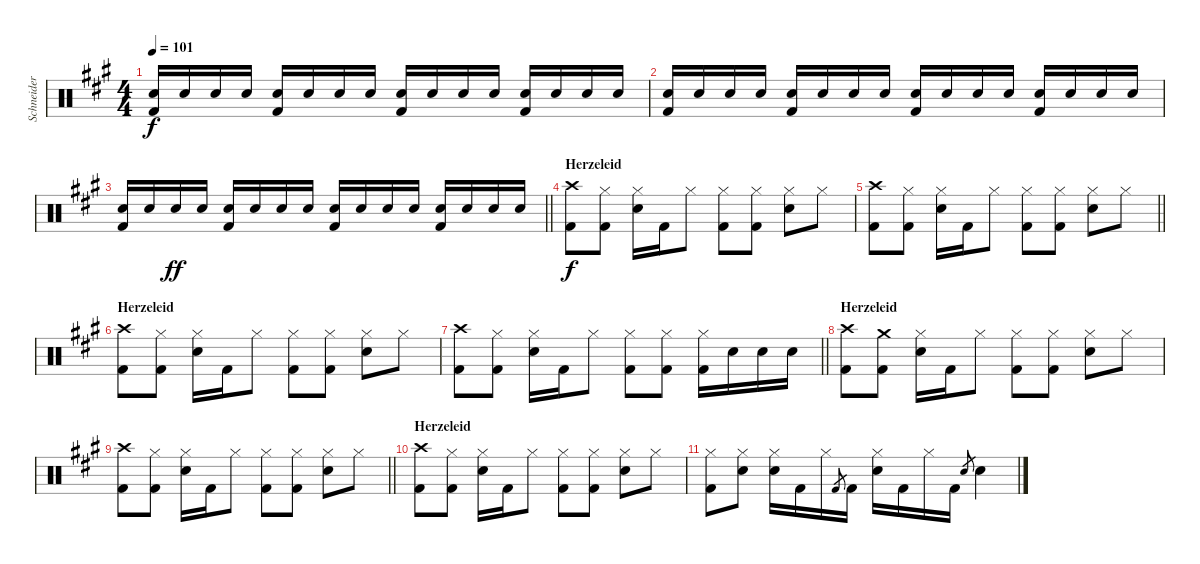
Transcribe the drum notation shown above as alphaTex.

\track ("Schneider" "Schneider") {instrument percussion}
\staff {score}
\articulation defaults
\ts (4 4)
\tempo 101
\clef neutral
\ks f#minor
("Snare (hit) 2" "Kick (hit) 2").16{dy f} "Snare (hit) 2".16 "Snare (hit) 2".16 "Snare (hit) 2".16 ("Snare (hit) 2" "Kick (hit) 2").16 "Snare (hit) 2".16 "Snare (hit) 2".16 "Snare (hit) 2".16 ("Snare (hit) 2" "Kick (hit) 2").16 "Snare (hit) 2".16 "Snare (hit) 2".16 "Snare (hit) 2".16 ("Snare (hit) 2" "Kick (hit) 2").16 "Snare (hit) 2".16 "Snare (hit) 2".16 "Snare (hit) 2".16 |
("Snare (hit) 2" "Kick (hit) 2").16 "Snare (hit) 2".16 "Snare (hit) 2".16 "Snare (hit) 2".16 ("Snare (hit) 2" "Kick (hit) 2").16 "Snare (hit) 2".16 "Snare (hit) 2".16 "Snare (hit) 2".16 ("Snare (hit) 2" "Kick (hit) 2").16 "Snare (hit) 2".16 "Snare (hit) 2".16 "Snare (hit) 2".16 ("Snare (hit) 2" "Kick (hit) 2").16 "Snare (hit) 2".16 "Snare (hit) 2".16 "Snare (hit) 2".16 |
\barLineRight lightlight
("Snare (hit) 2" "Kick (hit) 2").16 "Snare (hit) 2".16 "Snare (hit) 2".16{dy ff} "Snare (hit) 2".16 ("Snare (hit) 2" "Kick (hit) 2").16 "Snare (hit) 2".16 "Snare (hit) 2".16 "Snare (hit) 2".16 ("Snare (hit) 2" "Kick (hit) 2").16 "Snare (hit) 2".16 "Snare (hit) 2".16 "Snare (hit) 2".16 ("Snare (hit) 2" "Kick (hit) 2").16 "Snare (hit) 2".16 "Snare (hit) 2".16 "Snare (hit) 2".16 |
\section ("" "Herzeleid")
("Crash high (hit)" "Kick (hit) 2").8{dy f} ("Hi-Hat (closed)" "Kick (hit) 2").8 ("Hi-Hat (closed)" "Snare (hit) 2").16 "Kick (hit) 2".16 "Hi-Hat (closed)".8 ("Hi-Hat (closed)" "Kick (hit) 2").8 ("Hi-Hat (closed)" "Kick (hit) 2").8 ("Hi-Hat (closed)" "Snare (hit) 2").8 "Hi-Hat (closed)".8 |
\barLineRight lightlight
("Crash high (hit)" "Kick (hit) 2").8 ("Hi-Hat (closed)" "Kick (hit) 2").8 ("Hi-Hat (closed)" "Snare (hit) 2").16 "Kick (hit) 2".16 "Hi-Hat (closed)".8 ("Hi-Hat (closed)" "Kick (hit) 2").8 ("Hi-Hat (closed)" "Kick (hit) 2").8 ("Hi-Hat (closed)" "Snare (hit) 2").8 "Hi-Hat (closed)".8 |
\section ("" "Herzeleid")
("Crash high (hit)" "Kick (hit) 2").8 ("Hi-Hat (closed)" "Kick (hit) 2").8 ("Hi-Hat (closed)" "Snare (hit) 2").16 "Kick (hit) 2".16 "Hi-Hat (closed)".8 ("Hi-Hat (closed)" "Kick (hit) 2").8 ("Hi-Hat (closed)" "Kick (hit) 2").8 ("Hi-Hat (closed)" "Snare (hit) 2").8 "Hi-Hat (closed)".8 |
\barLineRight lightlight
("Crash high (hit)" "Kick (hit) 2").8 ("Hi-Hat (closed)" "Kick (hit) 2").8 ("Hi-Hat (closed)" "Snare (hit) 2").16 "Kick (hit) 2".16 "Hi-Hat (closed)".8 ("Hi-Hat (closed)" "Kick (hit) 2").8 ("Hi-Hat (closed)" "Kick (hit) 2").8 ("Hi-Hat (closed)" "Kick (hit) 2").16 "Snare (hit) 2".16 "Snare (hit) 2".16 "Snare (hit) 2".16 |
\section ("" "Herzeleid")
("Crash high (hit)" "Kick (hit) 2").8 ("Crash medium (hit)" "Kick (hit) 2").8 ("Hi-Hat (closed)" "Snare (hit) 2").16 "Kick (hit) 2".16 "Hi-Hat (closed)".8 ("Hi-Hat (closed)" "Kick (hit) 2").8 ("Hi-Hat (closed)" "Kick (hit) 2").8 ("Hi-Hat (closed)" "Snare (hit) 2").8 "Hi-Hat (closed)".8 |
\barLineRight lightlight
("Crash high (hit)" "Kick (hit) 2").8 ("Hi-Hat (closed)" "Kick (hit) 2").8 ("Hi-Hat (closed)" "Snare (hit) 2").16 "Kick (hit) 2".16 "Hi-Hat (closed)".8 ("Hi-Hat (closed)" "Kick (hit) 2").8 ("Hi-Hat (closed)" "Kick (hit) 2").8 ("Hi-Hat (closed)" "Snare (hit) 2").8 "Hi-Hat (closed)".8 |
\section ("" "Herzeleid")
("Crash high (hit)" "Kick (hit) 2").8 ("Hi-Hat (closed)" "Kick (hit) 2").8 ("Hi-Hat (closed)" "Snare (hit) 2").16 "Kick (hit) 2".16 "Hi-Hat (closed)".8 ("Hi-Hat (closed)" "Kick (hit) 2").8 ("Hi-Hat (closed)" "Kick (hit) 2").8 ("Hi-Hat (closed)" "Snare (hit) 2").8 "Hi-Hat (closed)".8 |
("Hi-Hat (closed)" "Kick (hit) 2").8 ("Hi-Hat (closed)" "Snare (hit) 2").8 ("Hi-Hat (closed)" "Snare (hit) 2").16 "Kick (hit) 2".16 "Hi-Hat (closed)".16 "Kick (hit) 2".8{gr} "Kick (hit) 2".16 ("Hi-Hat (closed)" "Snare (hit) 2").16 "Kick (hit) 2".16 "Hi-Hat (closed)".16 "Kick (hit) 2".16 "Snare (hit) 2".8{gr} "Snare (hit) 2".4
